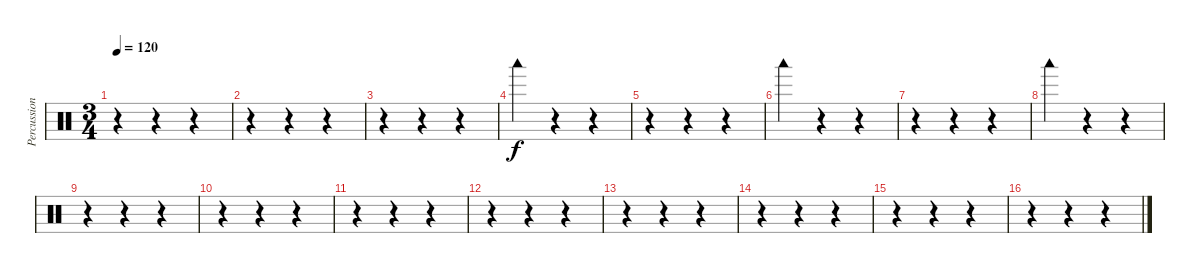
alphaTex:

\track ("Percussions" "Percussion") {instrument percussion}
\staff {score}
\articulation defaults
\ts (3 4)
\tempo 120
\clef neutral
\ks c
r.4{dy f} r.4 r.4 |
r.4 r.4 r.4 |
r.4 r.4 r.4 |
"Woodblock low (hit)".4 r.4 r.4 |
r.4 r.4 r.4 |
"Woodblock low (hit)".4 r.4 r.4 |
r.4 r.4 r.4 |
"Woodblock low (hit)".4 r.4 r.4 |
r.4 r.4 r.4 |
r.4 r.4 r.4 |
r.4 r.4 r.4 |
r.4 r.4 r.4 |
r.4 r.4 r.4 |
r.4 r.4 r.4 |
r.4 r.4 r.4 |
r.4 r.4 r.4
